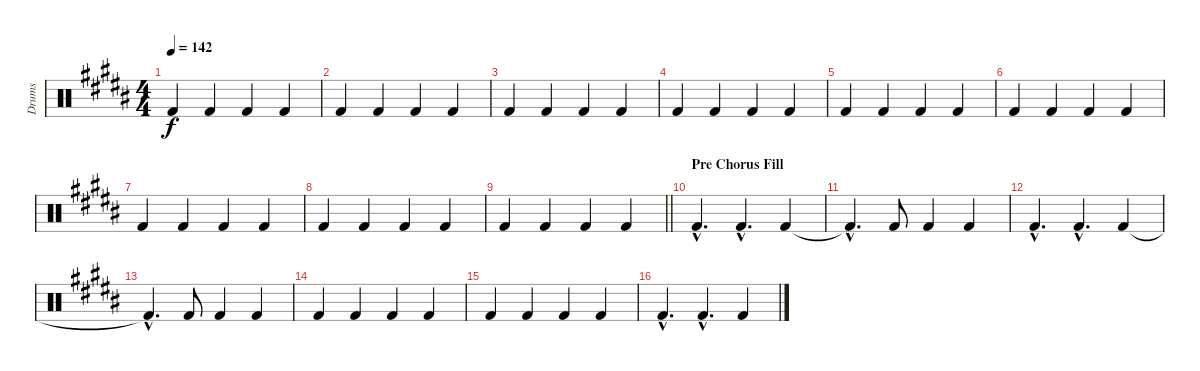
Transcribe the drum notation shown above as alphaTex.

\track ("Drums" "Drums") {instrument percussion}
\staff {score}
\articulation defaults
\ts (4 4)
\tempo 142
\clef neutral
\ks b "Kick (hit) 2".4{dy f} "Kick (hit) 2".4 "Kick (hit) 2".4 "Kick (hit) 2".4
|
"Kick (hit) 2".4 "Kick (hit) 2".4 "Kick (hit) 2".4 "Kick (hit) 2".4 |
"Kick (hit) 2".4 "Kick (hit) 2".4 "Kick (hit) 2".4 "Kick (hit) 2".4 |
"Kick (hit) 2".4 "Kick (hit) 2".4 "Kick (hit) 2".4 "Kick (hit) 2".4 |
"Kick (hit) 2".4 "Kick (hit) 2".4 "Kick (hit) 2".4 "Kick (hit) 2".4 |
"Kick (hit) 2".4 "Kick (hit) 2".4 "Kick (hit) 2".4 "Kick (hit) 2".4 |
"Kick (hit) 2".4 "Kick (hit) 2".4 "Kick (hit) 2".4 "Kick (hit) 2".4 |
"Kick (hit) 2".4 "Kick (hit) 2".4 "Kick (hit) 2".4 "Kick (hit) 2".4 |
\barLineRight lightlight "Kick (hit) 2".4 "Kick (hit) 2".4 "Kick (hit) 2".4 "Kick (hit) 2".4
|
\section ("" "Pre Chorus Fill")
"Kick (hit) 2"{hac}.4{d} "Kick (hit) 2"{hac}.4{d} "Kick (hit) 2".4 |
"Kick (hit) 2"{hac t}.4{d} "Kick (hit) 2".8 "Kick (hit) 2".4 "Kick (hit) 2".4 |
"Kick (hit) 2"{hac}.4{d} "Kick (hit) 2"{hac}.4{d} "Kick (hit) 2".4 |
"Kick (hit) 2"{hac t}.4{d} "Kick (hit) 2".8 "Kick (hit) 2".4 "Kick (hit) 2".4 |
"Kick (hit) 2".4 "Kick (hit) 2".4 "Kick (hit) 2".4 "Kick (hit) 2".4 |
"Kick (hit) 2".4 "Kick (hit) 2".4 "Kick (hit) 2".4 "Kick (hit) 2".4 |
"Kick (hit) 2"{hac}.4{d} "Kick (hit) 2"{hac}.4{d} "Kick (hit) 2".4
